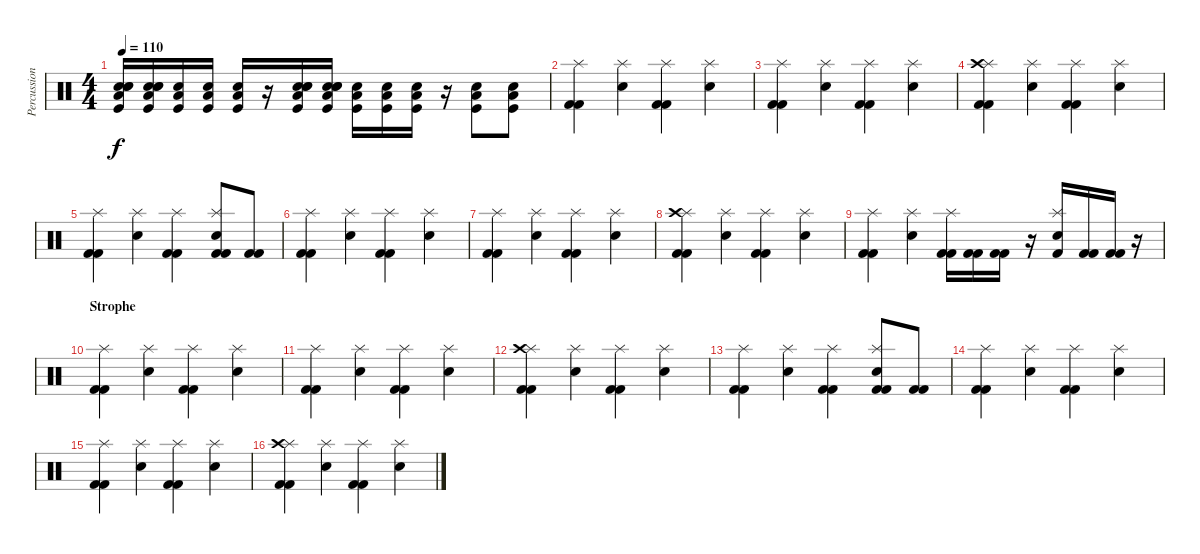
\track ("Percussion" "Percussion") {instrument percussion}
\staff {score}
\articulation defaults
\ts (4 4)
\tempo 110
\clef neutral
\ks c
("Electric Snare (hit)" "Electric Snare (hit)" "Electric Snare (hit)" "Low Tom (hit)" "Kick (hit)").16{dy f} ("Electric Snare (hit)" "Electric Snare (hit)" "Electric Snare (hit)" "Low Tom (hit)" "Kick (hit)").16 ("Snare (hit) 2" "Low Tom (hit)" "Kick (hit)").16 ("Snare (hit) 2" "Low Tom (hit)" "Kick (hit)").16 ("Snare (hit) 2" "Low Tom (hit)" "Kick (hit)").16 r.16 ("Electric Snare (hit)" "Electric Snare (hit)" "Electric Snare (hit)" "Low Tom (hit)" "Kick (hit)").16 ("Electric Snare (hit)" "Electric Snare (hit)" "Electric Snare (hit)" "Low Tom (hit)" "Kick (hit)").16 ("Snare (hit) 2" "Low Tom (hit)" "Kick (hit)").16 ("Snare (hit) 2" "Low Tom (hit)" "Kick (hit)").16 ("Snare (hit) 2" "Low Tom (hit)" "Kick (hit)").16 r.16 ("Snare (hit) 2" "Low Tom (hit)" "Kick (hit)").8 ("Snare (hit) 2" "Low Tom (hit)" "Kick (hit)").8 |
("Splash (hit)" "Kick (hit) 2" "Kick (hit) 2").4 ("Splash (hit)" "Electric Snare (hit)").4 ("Splash (hit)" "Kick (hit) 2" "Kick (hit) 2").4 ("Splash (hit)" "Electric Snare (hit)").4 |
("Splash (hit)" "Kick (hit) 2" "Kick (hit) 2").4 ("Splash (hit)" "Electric Snare (hit)").4 ("Splash (hit)" "Kick (hit) 2" "Kick (hit) 2").4 ("Splash (hit)" "Electric Snare (hit)").4 |
("Splash (hit)" "Crash high (hit)" "Kick (hit) 2" "Kick (hit) 2").4 ("Splash (hit)" "Electric Snare (hit)").4 ("Splash (hit)" "Kick (hit) 2" "Kick (hit) 2").4 ("Splash (hit)" "Electric Snare (hit)").4 |
("Splash (hit)" "Kick (hit) 2" "Kick (hit) 2").4 ("Splash (hit)" "Electric Snare (hit)").4 ("Splash (hit)" "Kick (hit) 2" "Kick (hit) 2").4 ("Splash (hit)" "Kick (hit) 2" "Electric Snare (hit)" "Kick (hit) 2").8 ("Kick (hit) 2" "Kick (hit) 2").8 |
("Splash (hit)" "Kick (hit) 2" "Kick (hit) 2").4 ("Splash (hit)" "Electric Snare (hit)").4 ("Splash (hit)" "Kick (hit) 2" "Kick (hit) 2").4 ("Splash (hit)" "Electric Snare (hit)").4 |
("Splash (hit)" "Kick (hit) 2" "Kick (hit) 2").4 ("Splash (hit)" "Electric Snare (hit)").4 ("Splash (hit)" "Kick (hit) 2" "Kick (hit) 2").4 ("Splash (hit)" "Electric Snare (hit)").4 |
("Splash (hit)" "Crash high (hit)" "Kick (hit) 2" "Kick (hit) 2").4 ("Splash (hit)" "Electric Snare (hit)").4 ("Splash (hit)" "Kick (hit) 2" "Kick (hit) 2").4 ("Splash (hit)" "Electric Snare (hit)").4 |
("Splash (hit)" "Kick (hit) 2" "Kick (hit) 2").4 ("Splash (hit)" "Electric Snare (hit)").4 ("Splash (hit)" "Kick (hit) 2" "Kick (hit) 2").16 ("Kick (hit) 2" "Kick (hit) 2").16 ("Kick (hit) 2" "Kick (hit) 2").16 r.16 ("Splash (hit)" "Electric Snare (hit)" "Kick (hit) 2").16 ("Kick (hit) 2" "Kick (hit) 2").16 ("Kick (hit) 2" "Kick (hit) 2").16 r.16 |
\section ("" "Strophe")
("Splash (hit)" "Kick (hit) 2" "Kick (hit) 2").4 ("Splash (hit)" "Electric Snare (hit)").4 ("Splash (hit)" "Kick (hit) 2" "Kick (hit) 2").4 ("Splash (hit)" "Electric Snare (hit)").4 |
("Splash (hit)" "Kick (hit) 2" "Kick (hit) 2").4 ("Splash (hit)" "Electric Snare (hit)").4 ("Splash (hit)" "Kick (hit) 2" "Kick (hit) 2").4 ("Splash (hit)" "Electric Snare (hit)").4 |
("Splash (hit)" "Crash high (hit)" "Kick (hit) 2" "Kick (hit) 2").4 ("Splash (hit)" "Electric Snare (hit)").4 ("Splash (hit)" "Kick (hit) 2" "Kick (hit) 2").4 ("Splash (hit)" "Electric Snare (hit)").4 |
("Splash (hit)" "Kick (hit) 2" "Kick (hit) 2").4 ("Splash (hit)" "Electric Snare (hit)").4 ("Splash (hit)" "Kick (hit) 2" "Kick (hit) 2").4 ("Splash (hit)" "Kick (hit) 2" "Electric Snare (hit)" "Kick (hit) 2").8 ("Kick (hit) 2" "Kick (hit) 2").8 |
("Splash (hit)" "Kick (hit) 2" "Kick (hit) 2").4 ("Splash (hit)" "Electric Snare (hit)").4 ("Splash (hit)" "Kick (hit) 2" "Kick (hit) 2").4 ("Splash (hit)" "Electric Snare (hit)").4 |
("Splash (hit)" "Kick (hit) 2" "Kick (hit) 2").4 ("Splash (hit)" "Electric Snare (hit)").4 ("Splash (hit)" "Kick (hit) 2" "Kick (hit) 2").4 ("Splash (hit)" "Electric Snare (hit)").4 |
("Splash (hit)" "Crash high (hit)" "Kick (hit) 2" "Kick (hit) 2").4 ("Splash (hit)" "Electric Snare (hit)").4 ("Splash (hit)" "Kick (hit) 2" "Kick (hit) 2").4 ("Splash (hit)" "Electric Snare (hit)").4
